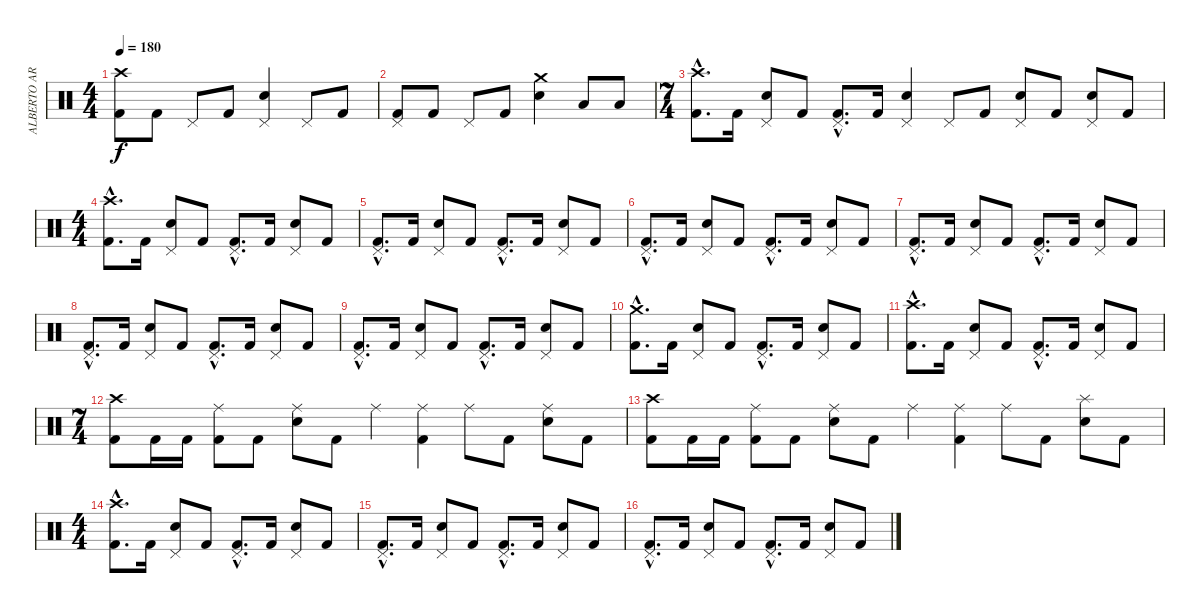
\track ("ALBERTO ARDINES" "ALBERTO AR") {instrument percussion}
\staff {score}
\articulation defaults
\ts (4 4)
\tempo 180
\clef neutral
\ks c
("Crash high (hit)" "Kick (hit) 2").8{dy f} "Kick (hit) 2".8 "Pedal Hi-Hat (hit)".8 "Kick (hit) 2".8 ("Pedal Hi-Hat (hit)" "Electric Snare (hit)").4 "Pedal Hi-Hat (hit)".8 "Kick (hit) 2".8 |
("Pedal Hi-Hat (hit)" "Kick (hit) 2").8 "Kick (hit) 2".8 "Pedal Hi-Hat (hit)".8 "Kick (hit) 2".8 ("Crash medium (hit)" "Electric Snare (hit)").4 "Low Tom (hit)".8 "Low Tom (hit)".8 |
\ts (7 4)
("Crash high (hit)"{hac} "Kick (hit) 2"{hac}).8{d} "Kick (hit) 2".16 ("Pedal Hi-Hat (hit)" "Electric Snare (hit)").8 "Kick (hit) 2".8 ("Pedal Hi-Hat (hit)"{hac} "Kick (hit) 2"{hac}).8{d} "Kick (hit) 2".16 ("Pedal Hi-Hat (hit)" "Electric Snare (hit)").4 "Pedal Hi-Hat (hit)".8 "Kick (hit) 2".8 ("Pedal Hi-Hat (hit)" "Electric Snare (hit)").8 "Kick (hit) 2".8 ("Pedal Hi-Hat (hit)" "Electric Snare (hit)").8 "Kick (hit) 2".8 |
\ts (4 4)
("Crash high (hit)"{hac} "Kick (hit) 2"{hac}).8{d} "Kick (hit) 2".16 ("Pedal Hi-Hat (hit)" "Electric Snare (hit)").8 "Kick (hit) 2".8 ("Pedal Hi-Hat (hit)"{hac} "Kick (hit) 2"{hac}).8{d} "Kick (hit) 2".16 ("Pedal Hi-Hat (hit)" "Electric Snare (hit)").8 "Kick (hit) 2".8 |
("Pedal Hi-Hat (hit)"{hac} "Kick (hit) 2"{hac}).8{d} "Kick (hit) 2".16 ("Pedal Hi-Hat (hit)" "Electric Snare (hit)").8 "Kick (hit) 2".8 ("Pedal Hi-Hat (hit)"{hac} "Kick (hit) 2"{hac}).8{d} "Kick (hit) 2".16 ("Pedal Hi-Hat (hit)" "Electric Snare (hit)").8 "Kick (hit) 2".8 |
("Pedal Hi-Hat (hit)"{hac} "Kick (hit) 2"{hac}).8{d} "Kick (hit) 2".16 ("Pedal Hi-Hat (hit)" "Electric Snare (hit)").8 "Kick (hit) 2".8 ("Pedal Hi-Hat (hit)"{hac} "Kick (hit) 2"{hac}).8{d} "Kick (hit) 2".16 ("Pedal Hi-Hat (hit)" "Electric Snare (hit)").8 "Kick (hit) 2".8 |
("Pedal Hi-Hat (hit)"{hac} "Kick (hit) 2"{hac}).8{d} "Kick (hit) 2".16 ("Pedal Hi-Hat (hit)" "Electric Snare (hit)").8 "Kick (hit) 2".8 ("Pedal Hi-Hat (hit)"{hac} "Kick (hit) 2"{hac}).8{d} "Kick (hit) 2".16 ("Pedal Hi-Hat (hit)" "Electric Snare (hit)").8 "Kick (hit) 2".8 |
("Pedal Hi-Hat (hit)"{hac} "Kick (hit) 2"{hac}).8{d} "Kick (hit) 2".16 ("Pedal Hi-Hat (hit)" "Electric Snare (hit)").8 "Kick (hit) 2".8 ("Pedal Hi-Hat (hit)"{hac} "Kick (hit) 2"{hac}).8{d} "Kick (hit) 2".16 ("Pedal Hi-Hat (hit)" "Electric Snare (hit)").8 "Kick (hit) 2".8 |
("Pedal Hi-Hat (hit)"{hac} "Kick (hit) 2"{hac}).8{d} "Kick (hit) 2".16 ("Pedal Hi-Hat (hit)" "Electric Snare (hit)").8 "Kick (hit) 2".8 ("Pedal Hi-Hat (hit)"{hac} "Kick (hit) 2"{hac}).8{d} "Kick (hit) 2".16 ("Pedal Hi-Hat (hit)" "Electric Snare (hit)").8 "Kick (hit) 2".8 |
("Crash medium (hit)"{hac} "Kick (hit) 2"{hac}).8{d} "Kick (hit) 2".16 ("Pedal Hi-Hat (hit)" "Electric Snare (hit)").8 "Kick (hit) 2".8 ("Pedal Hi-Hat (hit)"{hac} "Kick (hit) 2"{hac}).8{d} "Kick (hit) 2".16 ("Pedal Hi-Hat (hit)" "Electric Snare (hit)").8 "Kick (hit) 2".8 |
("Crash high (hit)"{hac} "Kick (hit) 2"{hac}).8{d} "Kick (hit) 2".16 ("Pedal Hi-Hat (hit)" "Electric Snare (hit)").8 "Kick (hit) 2".8 ("Pedal Hi-Hat (hit)"{hac} "Kick (hit) 2"{hac}).8{d} "Kick (hit) 2".16 ("Pedal Hi-Hat (hit)" "Electric Snare (hit)").8 "Kick (hit) 2".8 |
\ts (7 4)
("Crash high (hit)" "Kick (hit) 2").8 "Kick (hit) 2".16 "Kick (hit) 2".16 ("Ride (middle)" "Kick (hit) 2").8 "Kick (hit) 2".8 ("Ride (middle)" "Electric Snare (hit)").8 "Kick (hit) 2".8 "Ride (middle)".4 ("Ride (middle)" "Kick (hit) 2").4 "Ride (middle)".8 "Kick (hit) 2".8 ("Ride (middle)" "Electric Snare (hit)").8 "Kick (hit) 2".8 |
("Crash high (hit)" "Kick (hit) 2").8 "Kick (hit) 2".16 "Kick (hit) 2".16 ("Ride (middle)" "Kick (hit) 2").8 "Kick (hit) 2".8 ("Ride (middle)" "Electric Snare (hit)").8 "Kick (hit) 2".8 "Ride (middle)".4 ("Ride (middle)" "Kick (hit) 2").4 "Ride (middle)".8 "Kick (hit) 2".8 ("Splash (hit)" "Electric Snare (hit)").8 "Kick (hit) 2".8 |
\ts (4 4)
("Crash high (hit)"{hac} "Kick (hit) 2"{hac}).8{d} "Kick (hit) 2".16 ("Pedal Hi-Hat (hit)" "Electric Snare (hit)").8 "Kick (hit) 2".8 ("Pedal Hi-Hat (hit)"{hac} "Kick (hit) 2"{hac}).8{d} "Kick (hit) 2".16 ("Pedal Hi-Hat (hit)" "Electric Snare (hit)").8 "Kick (hit) 2".8 |
("Pedal Hi-Hat (hit)"{hac} "Kick (hit) 2"{hac}).8{d} "Kick (hit) 2".16 ("Pedal Hi-Hat (hit)" "Electric Snare (hit)").8 "Kick (hit) 2".8 ("Pedal Hi-Hat (hit)"{hac} "Kick (hit) 2"{hac}).8{d} "Kick (hit) 2".16 ("Pedal Hi-Hat (hit)" "Electric Snare (hit)").8 "Kick (hit) 2".8 |
("Pedal Hi-Hat (hit)"{hac} "Kick (hit) 2"{hac}).8{d} "Kick (hit) 2".16 ("Pedal Hi-Hat (hit)" "Electric Snare (hit)").8 "Kick (hit) 2".8 ("Pedal Hi-Hat (hit)"{hac} "Kick (hit) 2"{hac}).8{d} "Kick (hit) 2".16 ("Pedal Hi-Hat (hit)" "Electric Snare (hit)").8 "Kick (hit) 2".8
